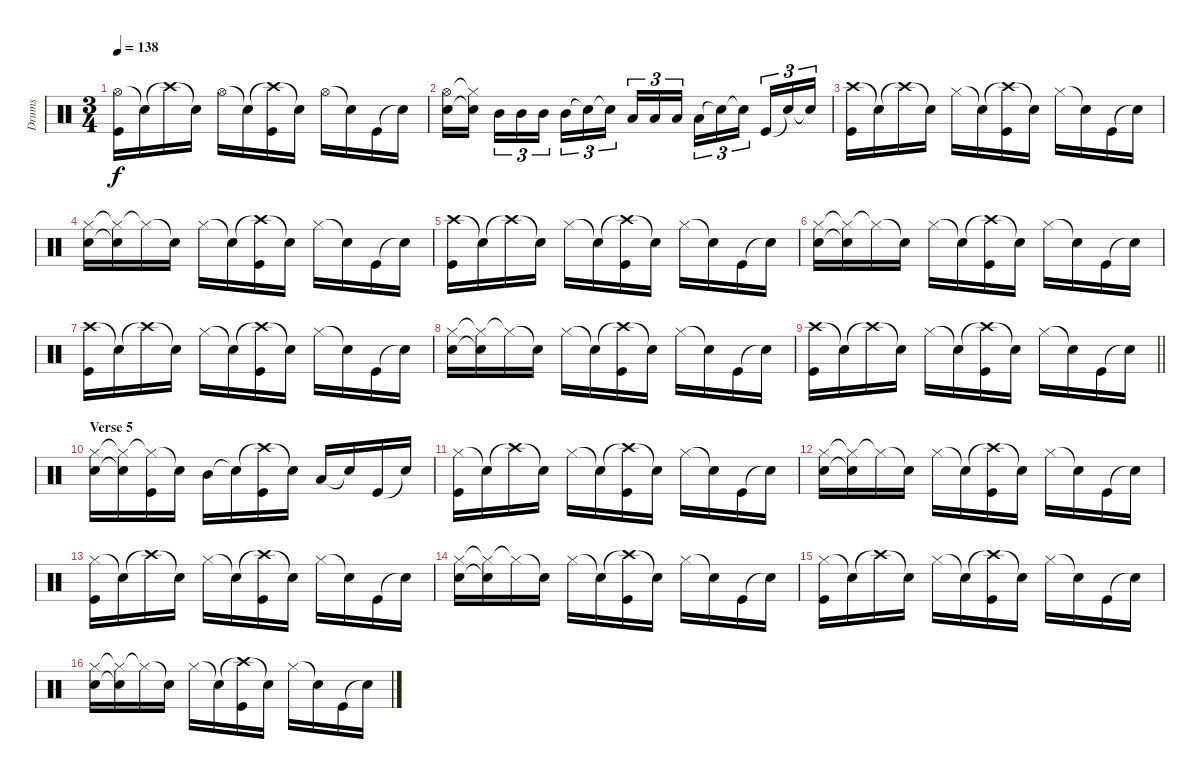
\track ("Drums" "Drums") {instrument percussion}
\staff {score}
\articulation defaults
\ts (3 4)
\tempo 138
\clef neutral
\ks c
("Hi-Hat (open)" "Kick (hit)").16{dy f} "Snare (hit)"{t}.16 "Crash high (hit)"{t}.16 "Snare (hit)"{t}.16 "Hi-Hat (open)".16 "Snare (hit)"{t}.16 ("Crash high (hit)"{t} "Kick (hit)").16 "Snare (hit)"{t}.16 "Hi-Hat (open)".16 "Snare (hit)"{t}.16 "Kick (hit)".16 "Snare (hit)"{t}.16 |
("Hi-Hat (open)" "Electric Snare (hit)").16 ("Hi-Hat (closed)"{t} "Snare (hit)"{t}).16 "Mid Tom (hit)".16{tu (3 2)} "Mid Tom (hit)".16{tu (3 2)} "Mid Tom (hit)".16{tu (3 2)} "Mid Tom (hit)".16{tu (3 2)} "Snare (hit)"{t}.16{tu (3 2)} "Snare (hit)"{t}.16{tu (3 2)} "Low Tom (hit)".16{tu (3 2)} "Low Tom (hit)".16{tu (3 2)} "Low Tom (hit)".16{tu (3 2)} "Low Tom (hit)".16{tu (3 2)} "Snare (hit)"{t}.16{tu (3 2)} "Snare (hit)"{t}.16{tu (3 2)} "Kick (hit)".16{tu (3 2)} "Snare (hit)"{t}.16{tu (3 2)} "Snare (hit)"{t}.16{tu (3 2)} |
("Crash high (hit)" "Kick (hit)").16 "Snare (hit)"{t}.16 "Crash high (hit)"{t}.16 "Snare (hit)"{t}.16 "Hi-Hat (closed)".16 "Snare (hit)"{t}.16 ("Crash high (hit)"{t} "Kick (hit)").16 "Snare (hit)"{t}.16 "Hi-Hat (closed)".16 "Snare (hit)"{t}.16 "Kick (hit)".16 "Snare (hit)"{t}.16 |
("Hi-Hat (closed)" "Electric Snare (hit)").16 ("Hi-Hat (closed)"{t} "Snare (hit)"{t}).16 "Hi-Hat (closed)"{t}.16 "Snare (hit)"{t}.16 "Hi-Hat (closed)".16 "Snare (hit)"{t}.16 ("Crash high (hit)"{t} "Kick (hit)").16 "Snare (hit)"{t}.16 "Hi-Hat (closed)".16 "Snare (hit)"{t}.16 "Kick (hit)".16 "Snare (hit)"{t}.16 |
("Crash high (hit)" "Kick (hit)").16 "Snare (hit)"{t}.16 "Crash high (hit)"{t}.16 "Snare (hit)"{t}.16 "Hi-Hat (closed)".16 "Snare (hit)"{t}.16 ("Crash high (hit)"{t} "Kick (hit)").16 "Snare (hit)"{t}.16 "Hi-Hat (closed)".16 "Snare (hit)"{t}.16 "Kick (hit)".16 "Snare (hit)"{t}.16 |
("Hi-Hat (closed)" "Electric Snare (hit)").16 ("Hi-Hat (closed)"{t} "Snare (hit)"{t}).16 "Hi-Hat (closed)"{t}.16 "Snare (hit)"{t}.16 "Hi-Hat (closed)".16 "Snare (hit)"{t}.16 ("Crash high (hit)"{t} "Kick (hit)").16 "Snare (hit)"{t}.16 "Hi-Hat (closed)".16 "Snare (hit)"{t}.16 "Kick (hit)".16 "Snare (hit)"{t}.16 |
("Crash high (hit)" "Kick (hit)").16 "Snare (hit)"{t}.16 "Crash high (hit)"{t}.16 "Snare (hit)"{t}.16 "Hi-Hat (closed)".16 "Snare (hit)"{t}.16 ("Crash high (hit)"{t} "Kick (hit)").16 "Snare (hit)"{t}.16 "Hi-Hat (closed)".16 "Snare (hit)"{t}.16 "Kick (hit)".16 "Snare (hit)"{t}.16 |
("Hi-Hat (closed)" "Electric Snare (hit)").16 ("Hi-Hat (closed)"{t} "Snare (hit)"{t}).16 "Hi-Hat (closed)"{t}.16 "Snare (hit)"{t}.16 "Hi-Hat (closed)".16 "Snare (hit)"{t}.16 ("Crash high (hit)"{t} "Kick (hit)").16 "Snare (hit)"{t}.16 "Hi-Hat (closed)".16 "Snare (hit)"{t}.16 "Kick (hit)".16 "Snare (hit)"{t}.16 |
\barLineRight lightlight
("Crash high (hit)" "Kick (hit)").16 "Snare (hit)"{t}.16 "Crash high (hit)"{t}.16 "Snare (hit)"{t}.16 "Hi-Hat (closed)".16 "Snare (hit)"{t}.16 ("Crash high (hit)"{t} "Kick (hit)").16 "Snare (hit)"{t}.16 "Hi-Hat (closed)".16 "Snare (hit)"{t}.16 "Kick (hit)".16 "Snare (hit)"{t}.16 |
\section ("" "Verse 5")
("Hi-Hat (closed)" "Electric Snare (hit)").16 ("Hi-Hat (closed)"{t} "Snare (hit)"{t}).16 ("Hi-Hat (closed)"{t} "Kick (hit)").16 "Snare (hit)"{t}.16 "Mid Tom (hit)".16 "Snare (hit)"{t}.16 ("Crash high (hit)"{t} "Kick (hit)").16 "Snare (hit)"{t}.16 "Low Tom (hit)".16 "Snare (hit)"{t}.16 "Kick (hit)".16 "Snare (hit)"{t}.16 |
("Hi-Hat (closed)" "Kick (hit)").16 "Snare (hit)"{t}.16 "Crash high (hit)"{t}.16 "Snare (hit)"{t}.16 "Hi-Hat (closed)".16 "Snare (hit)"{t}.16 ("Crash high (hit)"{t} "Kick (hit)").16 "Snare (hit)"{t}.16 "Hi-Hat (closed)".16 "Snare (hit)"{t}.16 "Kick (hit)".16 "Snare (hit)"{t}.16 |
("Hi-Hat (closed)" "Electric Snare (hit)").16 ("Hi-Hat (closed)"{t} "Snare (hit)"{t}).16 "Hi-Hat (closed)"{t}.16 "Snare (hit)"{t}.16 "Hi-Hat (closed)".16 "Snare (hit)"{t}.16 ("Crash high (hit)"{t} "Kick (hit)").16 "Snare (hit)"{t}.16 "Hi-Hat (closed)".16 "Snare (hit)"{t}.16 "Kick (hit)".16 "Snare (hit)"{t}.16 |
("Hi-Hat (closed)" "Kick (hit)").16 "Snare (hit)"{t}.16 "Crash high (hit)"{t}.16 "Snare (hit)"{t}.16 "Hi-Hat (closed)".16 "Snare (hit)"{t}.16 ("Crash high (hit)"{t} "Kick (hit)").16 "Snare (hit)"{t}.16 "Hi-Hat (closed)".16 "Snare (hit)"{t}.16 "Kick (hit)".16 "Snare (hit)"{t}.16 |
("Hi-Hat (closed)" "Electric Snare (hit)").16 ("Hi-Hat (closed)"{t} "Snare (hit)"{t}).16 "Hi-Hat (closed)"{t}.16 "Snare (hit)"{t}.16 "Hi-Hat (closed)".16 "Snare (hit)"{t}.16 ("Crash high (hit)"{t} "Kick (hit)").16 "Snare (hit)"{t}.16 "Hi-Hat (closed)".16 "Snare (hit)"{t}.16 "Kick (hit)".16 "Snare (hit)"{t}.16 |
("Hi-Hat (closed)" "Kick (hit)").16 "Snare (hit)"{t}.16 "Crash high (hit)"{t}.16 "Snare (hit)"{t}.16 "Hi-Hat (closed)".16 "Snare (hit)"{t}.16 ("Crash high (hit)"{t} "Kick (hit)").16 "Snare (hit)"{t}.16 "Hi-Hat (closed)".16 "Snare (hit)"{t}.16 "Kick (hit)".16 "Snare (hit)"{t}.16 |
("Hi-Hat (closed)" "Electric Snare (hit)").16 ("Hi-Hat (closed)"{t} "Snare (hit)"{t}).16 "Hi-Hat (closed)"{t}.16 "Snare (hit)"{t}.16 "Hi-Hat (closed)".16 "Snare (hit)"{t}.16 ("Crash high (hit)"{t} "Kick (hit)").16 "Snare (hit)"{t}.16 "Hi-Hat (closed)".16 "Snare (hit)"{t}.16 "Kick (hit)".16 "Snare (hit)"{t}.16
